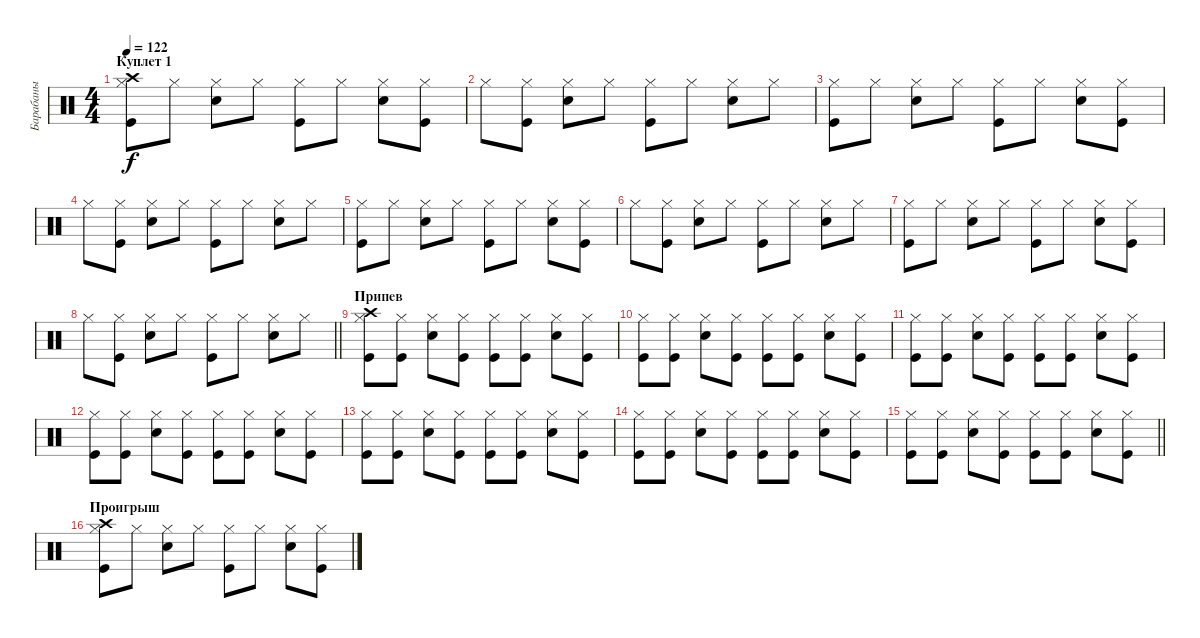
\track ("Барабаны" "Барабаны") {instrument percussion}
\staff {score}
\articulation defaults
\ts (4 4)
\section ("" "Куплет 1")
\tempo 122
\clef neutral
\ks c
("Kick (hit)" "Hi-Hat (closed)" "Crash high (hit)").8{dy f} "Hi-Hat (closed)".8 ("Snare (hit) 2" "Hi-Hat (closed)").8 "Hi-Hat (closed)".8 ("Kick (hit)" "Hi-Hat (closed)").8 "Hi-Hat (closed)".8 ("Snare (hit) 2" "Hi-Hat (closed)").8 ("Kick (hit)" "Hi-Hat (closed)").8 |
"Hi-Hat (closed)".8 ("Kick (hit)" "Hi-Hat (closed)").8 ("Snare (hit) 2" "Hi-Hat (closed)").8 "Hi-Hat (closed)".8 ("Kick (hit)" "Hi-Hat (closed)").8 "Hi-Hat (closed)".8 ("Snare (hit) 2" "Hi-Hat (closed)").8 "Hi-Hat (closed)".8 |
("Kick (hit)" "Hi-Hat (closed)").8 "Hi-Hat (closed)".8 ("Snare (hit) 2" "Hi-Hat (closed)").8 "Hi-Hat (closed)".8 ("Kick (hit)" "Hi-Hat (closed)").8 "Hi-Hat (closed)".8 ("Snare (hit) 2" "Hi-Hat (closed)").8 ("Kick (hit)" "Hi-Hat (closed)").8 |
"Hi-Hat (closed)".8 ("Kick (hit)" "Hi-Hat (closed)").8 ("Snare (hit) 2" "Hi-Hat (closed)").8 "Hi-Hat (closed)".8 ("Kick (hit)" "Hi-Hat (closed)").8 "Hi-Hat (closed)".8 ("Snare (hit) 2" "Hi-Hat (closed)").8 "Hi-Hat (closed)".8 |
("Kick (hit)" "Hi-Hat (closed)").8 "Hi-Hat (closed)".8 ("Snare (hit) 2" "Hi-Hat (closed)").8 "Hi-Hat (closed)".8 ("Kick (hit)" "Hi-Hat (closed)").8 "Hi-Hat (closed)".8 ("Snare (hit) 2" "Hi-Hat (closed)").8 ("Kick (hit)" "Hi-Hat (closed)").8 |
"Hi-Hat (closed)".8 ("Kick (hit)" "Hi-Hat (closed)").8 ("Snare (hit) 2" "Hi-Hat (closed)").8 "Hi-Hat (closed)".8 ("Kick (hit)" "Hi-Hat (closed)").8 "Hi-Hat (closed)".8 ("Snare (hit) 2" "Hi-Hat (closed)").8 "Hi-Hat (closed)".8 |
("Kick (hit)" "Hi-Hat (closed)").8 "Hi-Hat (closed)".8 ("Snare (hit) 2" "Hi-Hat (closed)").8 "Hi-Hat (closed)".8 ("Kick (hit)" "Hi-Hat (closed)").8 "Hi-Hat (closed)".8 ("Snare (hit) 2" "Hi-Hat (closed)").8 ("Kick (hit)" "Hi-Hat (closed)").8 |
\barLineRight lightlight "Hi-Hat (closed)".8
("Kick (hit)" "Hi-Hat (closed)").8 ("Snare (hit) 2" "Hi-Hat (closed)").8 "Hi-Hat (closed)".8 ("Kick (hit)" "Hi-Hat (closed)").8 "Hi-Hat (closed)".8 ("Snare (hit) 2" "Hi-Hat (closed)").8 "Hi-Hat (closed)".8 |
\section ("" "Припев")
("Kick (hit)" "Hi-Hat (closed)" "Crash high (hit)").8 ("Kick (hit)" "Hi-Hat (closed)").8 ("Snare (hit) 2" "Hi-Hat (closed)").8 ("Kick (hit)" "Hi-Hat (closed)").8 ("Kick (hit)" "Hi-Hat (closed)").8 ("Kick (hit)" "Hi-Hat (closed)").8 ("Snare (hit) 2" "Hi-Hat (closed)").8 ("Kick (hit)" "Hi-Hat (closed)").8 |
("Kick (hit)" "Hi-Hat (closed)").8 ("Kick (hit)" "Hi-Hat (closed)").8 ("Snare (hit) 2" "Hi-Hat (closed)").8 ("Kick (hit)" "Hi-Hat (closed)").8 ("Kick (hit)" "Hi-Hat (closed)").8 ("Kick (hit)" "Hi-Hat (closed)").8 ("Snare (hit) 2" "Hi-Hat (closed)").8 ("Kick (hit)" "Hi-Hat (closed)").8 |
("Kick (hit)" "Hi-Hat (closed)").8 ("Kick (hit)" "Hi-Hat (closed)").8 ("Snare (hit) 2" "Hi-Hat (closed)").8 ("Kick (hit)" "Hi-Hat (closed)").8 ("Kick (hit)" "Hi-Hat (closed)").8 ("Kick (hit)" "Hi-Hat (closed)").8 ("Snare (hit) 2" "Hi-Hat (closed)").8 ("Kick (hit)" "Hi-Hat (closed)").8 |
("Kick (hit)" "Hi-Hat (closed)").8 ("Kick (hit)" "Hi-Hat (closed)").8 ("Snare (hit) 2" "Hi-Hat (closed)").8 ("Kick (hit)" "Hi-Hat (closed)").8 ("Kick (hit)" "Hi-Hat (closed)").8 ("Kick (hit)" "Hi-Hat (closed)").8 ("Snare (hit) 2" "Hi-Hat (closed)").8 ("Kick (hit)" "Hi-Hat (closed)").8 |
("Kick (hit)" "Hi-Hat (closed)").8 ("Kick (hit)" "Hi-Hat (closed)").8 ("Snare (hit) 2" "Hi-Hat (closed)").8 ("Kick (hit)" "Hi-Hat (closed)").8 ("Kick (hit)" "Hi-Hat (closed)").8 ("Kick (hit)" "Hi-Hat (closed)").8 ("Snare (hit) 2" "Hi-Hat (closed)").8 ("Kick (hit)" "Hi-Hat (closed)").8 |
("Kick (hit)" "Hi-Hat (closed)").8 ("Kick (hit)" "Hi-Hat (closed)").8 ("Snare (hit) 2" "Hi-Hat (closed)").8 ("Kick (hit)" "Hi-Hat (closed)").8 ("Kick (hit)" "Hi-Hat (closed)").8 ("Kick (hit)" "Hi-Hat (closed)").8 ("Snare (hit) 2" "Hi-Hat (closed)").8 ("Kick (hit)" "Hi-Hat (closed)").8 |
\barLineRight lightlight
("Kick (hit)" "Hi-Hat (closed)").8 ("Kick (hit)" "Hi-Hat (closed)").8 ("Snare (hit) 2" "Hi-Hat (closed)").8 ("Kick (hit)" "Hi-Hat (closed)").8 ("Kick (hit)" "Hi-Hat (closed)").8 ("Kick (hit)" "Hi-Hat (closed)").8 ("Snare (hit) 2" "Hi-Hat (closed)").8 ("Kick (hit)" "Hi-Hat (closed)").8 |
\section ("" "Проигрыш")
("Kick (hit)" "Hi-Hat (closed)" "Crash high (hit)").8 "Hi-Hat (closed)".8 ("Snare (hit) 2" "Hi-Hat (closed)").8 "Hi-Hat (closed)".8 ("Kick (hit)" "Hi-Hat (closed)").8 "Hi-Hat (closed)".8 ("Snare (hit) 2" "Hi-Hat (closed)").8 ("Kick (hit)" "Hi-Hat (closed)").8
